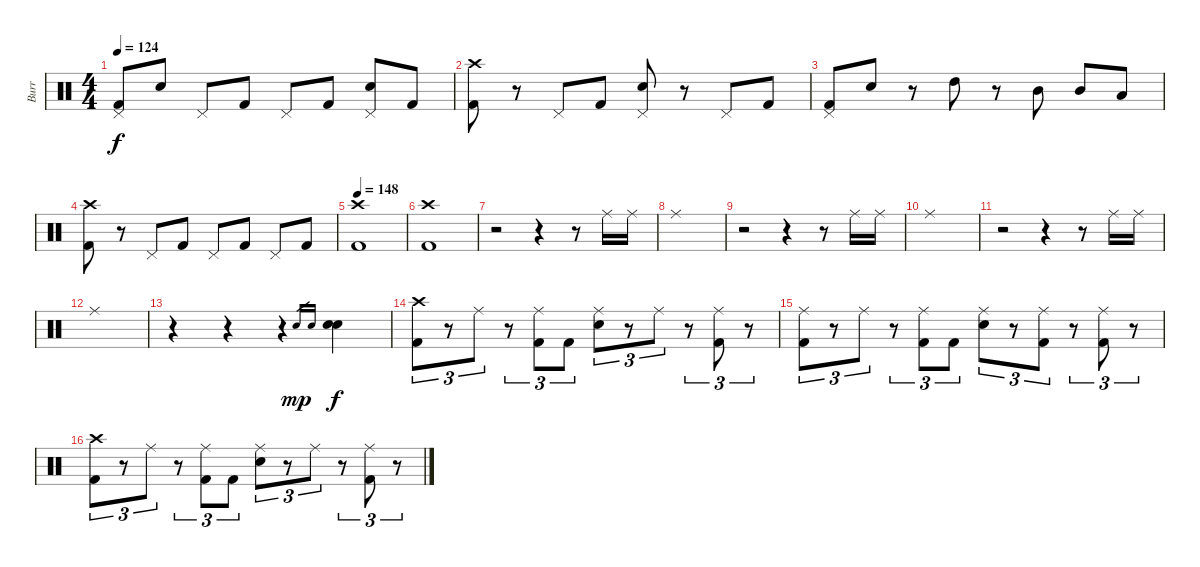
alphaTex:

\track ("Burr" "Burr") {instrument percussion}
\staff {score}
\articulation defaults
\ts (4 4)
\tempo 124
\clef neutral
\ks c
("Pedal Hi-Hat (hit)" "Kick (hit) 2").8{dy f} "Snare (hit) 2".8 "Pedal Hi-Hat (hit)".8 "Kick (hit) 2".8 "Pedal Hi-Hat (hit)".8 "Kick (hit) 2".8 ("Pedal Hi-Hat (hit)" "Snare (hit) 2").8 "Kick (hit) 2".8 |
("Crash high (hit)" "Kick (hit) 2").8 r.8 "Pedal Hi-Hat (hit)".8 "Kick (hit) 2".8 ("Pedal Hi-Hat (hit)" "Snare (hit) 2").8 r.8 "Pedal Hi-Hat (hit)".8 "Kick (hit) 2".8 |
("Pedal Hi-Hat (hit)" "Kick (hit) 2").8 "Snare (hit) 2".8 r.8 "High Tom (hit)".8 r.8 "Mid Tom (hit)".8 "Mid Tom (hit)".8 "Low Tom (hit)".8 |
("Crash high (hit)" "Kick (hit) 2").8 r.8 "Pedal Hi-Hat (hit)".8 "Kick (hit) 2".8 "Pedal Hi-Hat (hit)".8 "Kick (hit) 2".8 "Pedal Hi-Hat (hit)".8 "Kick (hit) 2".8 |
\tempo 148
("Crash high (hit)" "Kick (hit) 2").1 |
("Crash high (hit)" "Kick (hit) 2").1 |
r.2 r.4 r.8 "Ride (middle)".16 "Ride (middle)".16 |
"Ride (middle)".1 |
r.2 r.4 r.8 "Ride (middle)".16 "Ride (middle)".16 |
"Ride (middle)".1 |
r.2 r.4 r.8 "Ride (middle)".16 "Ride (middle)".16 |
"Ride (middle)".1 |
r.4 r.4 r.4 "Snare (hit) 2".16{gr dy mp} "Snare (hit) 2".16{gr} ("Snare (hit) 2" "Snare (hit) 2").4{dy f} |
("Crash high (hit)" "Kick (hit) 2").8{tu (3 2)} r.8{tu (3 2)} "Ride (middle)".8{tu (3 2)} r.8{tu (3 2)} ("Ride (middle)" "Kick (hit) 2").8{tu (3 2)} "Kick (hit) 2".8{tu (3 2)} ("Ride (middle)" "Snare (hit) 2").8{tu (3 2)} r.8{tu (3 2)} "Ride (middle)".8{tu (3 2)} r.8{tu (3 2)} ("Ride (middle)" "Kick (hit) 2").8{tu (3 2)} r.8{tu (3 2)} |
("Ride (middle)" "Kick (hit) 2").8{tu (3 2)} r.8{tu (3 2)} "Ride (middle)".8{tu (3 2)} r.8{tu (3 2)} ("Ride (middle)" "Kick (hit) 2").8{tu (3 2)} "Kick (hit) 2".8{tu (3 2)} ("Ride (middle)" "Snare (hit) 2").8{tu (3 2)} r.8{tu (3 2)} ("Ride (middle)" "Kick (hit) 2").8{tu (3 2)} r.8{tu (3 2)} ("Ride (middle)" "Kick (hit) 2").8{tu (3 2)} r.8{tu (3 2)} |
("Crash high (hit)" "Kick (hit) 2").8{tu (3 2)} r.8{tu (3 2)} "Ride (middle)".8{tu (3 2)} r.8{tu (3 2)} ("Ride (middle)" "Kick (hit) 2").8{tu (3 2)} "Kick (hit) 2".8{tu (3 2)} ("Ride (middle)" "Snare (hit) 2").8{tu (3 2)} r.8{tu (3 2)} "Ride (middle)".8{tu (3 2)} r.8{tu (3 2)} ("Ride (middle)" "Kick (hit) 2").8{tu (3 2)} r.8{tu (3 2)}
